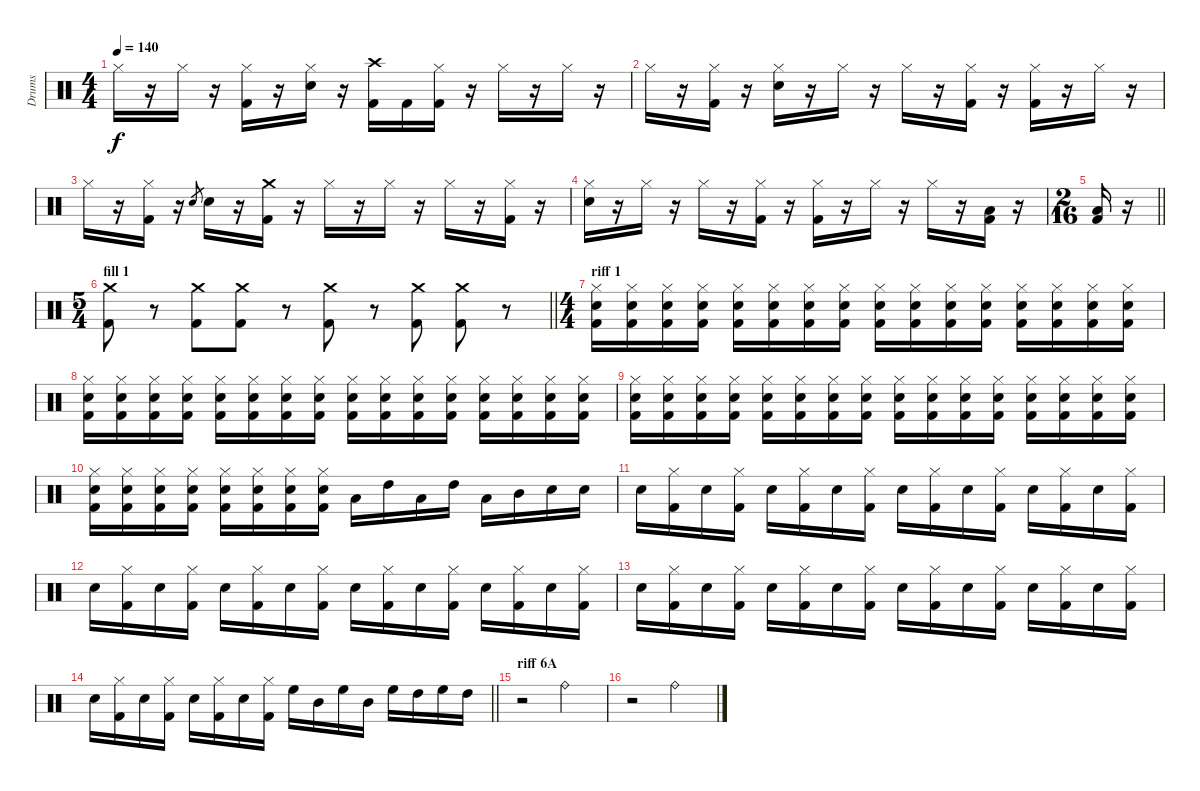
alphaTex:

\track ("Drums" "Drums") {instrument percussion}
\staff {score}
\articulation defaults
\ts (4 4)
\tempo 140
\clef neutral
\ks c "Hi-Hat (closed)".16{dy f}
r.16 "Hi-Hat (closed)".16 r.16 ("Kick (hit) 2" "Hi-Hat (closed)").16 r.16 ("Snare (hit) 2" "Hi-Hat (closed)").16 r.16 ("Kick (hit) 2" "Crash high (hit)").16 "Kick (hit) 2".16 ("Kick (hit) 2" "Hi-Hat (closed)").16 r.16 "Hi-Hat (closed)".16 r.16 "Hi-Hat (closed)".16 r.16 |
"Hi-Hat (closed)".16 r.16 ("Kick (hit) 2" "Hi-Hat (closed)").16 r.16 ("Snare (hit) 2" "Hi-Hat (closed)").16 r.16 "Hi-Hat (closed)".16 r.16 "Hi-Hat (closed)".16 r.16 ("Kick (hit) 2" "Hi-Hat (closed)").16 r.16 ("Kick (hit) 2" "Hi-Hat (closed)").16 r.16 "Hi-Hat (closed)".16 r.16 |
"Hi-Hat (closed)".16 r.16 ("Kick (hit) 2" "Hi-Hat (closed)").16 r.16 "Snare (hit) 2".8{gr} "Snare (hit) 2".16 r.16 ("Kick (hit) 2" "Crash medium (hit)").16 r.16 "Hi-Hat (closed)".16 r.16 "Hi-Hat (closed)".16 r.16 "Hi-Hat (closed)".16 r.16 ("Kick (hit) 2" "Hi-Hat (closed)").16 r.16 |
("Snare (hit) 2" "Hi-Hat (closed)").16 r.16 "Hi-Hat (closed)".16 r.16 "Hi-Hat (closed)".16 r.16 ("Kick (hit) 2" "Hi-Hat (closed)").16 r.16 ("Kick (hit) 2" "Hi-Hat (closed)").16 r.16 "Hi-Hat (closed)".16 r.16 "Hi-Hat (closed)".16 r.16 ("Kick (hit) 2" "Low Floor Tom (hit)").16 r.16 |
\ts (2 16)
\barLineRight lightlight
("Kick (hit) 2" "Low Floor Tom (hit)").16 r.16 |
\ts (5 4)
\section ("" "fill 1")
\barLineRight lightlight
("Kick (hit) 2" "Crash medium (hit)").8 r.8 ("Kick (hit) 2" "Crash medium (hit)").8 ("Kick (hit) 2" "Crash medium (hit)").8 r.8 ("Kick (hit) 2" "Crash medium (hit)").8 r.8 ("Kick (hit) 2" "Crash medium (hit)").8 ("Kick (hit) 2" "Crash medium (hit)").8 r.8 |
\ts (4 4)
\section ("" "riff 1")
("Kick (hit) 2" "Snare (hit) 2" "Hi-Hat (closed)").16 ("Kick (hit) 2" "Snare (hit) 2" "Hi-Hat (closed)").16 ("Kick (hit) 2" "Snare (hit) 2" "Hi-Hat (closed)").16 ("Kick (hit) 2" "Snare (hit) 2" "Hi-Hat (closed)").16 ("Kick (hit) 2" "Snare (hit) 2" "Hi-Hat (closed)").16 ("Kick (hit) 2" "Snare (hit) 2" "Hi-Hat (closed)").16 ("Kick (hit) 2" "Snare (hit) 2" "Hi-Hat (closed)").16 ("Kick (hit) 2" "Snare (hit) 2" "Hi-Hat (closed)").16 ("Kick (hit) 2" "Snare (hit) 2" "Hi-Hat (closed)").16 ("Kick (hit) 2" "Snare (hit) 2" "Hi-Hat (closed)").16 ("Kick (hit) 2" "Snare (hit) 2" "Hi-Hat (closed)").16 ("Kick (hit) 2" "Snare (hit) 2" "Hi-Hat (closed)").16 ("Kick (hit) 2" "Snare (hit) 2" "Hi-Hat (closed)").16 ("Kick (hit) 2" "Snare (hit) 2" "Hi-Hat (closed)").16 ("Kick (hit) 2" "Snare (hit) 2" "Hi-Hat (closed)").16 ("Kick (hit) 2" "Snare (hit) 2" "Hi-Hat (closed)").16 |
("Kick (hit) 2" "Snare (hit) 2" "Hi-Hat (closed)").16 ("Kick (hit) 2" "Snare (hit) 2" "Hi-Hat (closed)").16 ("Kick (hit) 2" "Snare (hit) 2" "Hi-Hat (closed)").16 ("Kick (hit) 2" "Snare (hit) 2" "Hi-Hat (closed)").16 ("Kick (hit) 2" "Snare (hit) 2" "Hi-Hat (closed)").16 ("Kick (hit) 2" "Snare (hit) 2" "Hi-Hat (closed)").16 ("Kick (hit) 2" "Snare (hit) 2" "Hi-Hat (closed)").16 ("Kick (hit) 2" "Snare (hit) 2" "Hi-Hat (closed)").16 ("Kick (hit) 2" "Snare (hit) 2" "Hi-Hat (closed)").16 ("Kick (hit) 2" "Snare (hit) 2" "Hi-Hat (closed)").16 ("Kick (hit) 2" "Snare (hit) 2" "Hi-Hat (closed)").16 ("Kick (hit) 2" "Snare (hit) 2" "Hi-Hat (closed)").16 ("Kick (hit) 2" "Snare (hit) 2" "Hi-Hat (closed)").16 ("Kick (hit) 2" "Snare (hit) 2" "Hi-Hat (closed)").16 ("Kick (hit) 2" "Snare (hit) 2" "Hi-Hat (closed)").16 ("Kick (hit) 2" "Snare (hit) 2" "Hi-Hat (closed)").16 |
("Kick (hit) 2" "Snare (hit) 2" "Hi-Hat (closed)").16 ("Kick (hit) 2" "Snare (hit) 2" "Hi-Hat (closed)").16 ("Kick (hit) 2" "Snare (hit) 2" "Hi-Hat (closed)").16 ("Kick (hit) 2" "Snare (hit) 2" "Hi-Hat (closed)").16 ("Kick (hit) 2" "Snare (hit) 2" "Hi-Hat (closed)").16 ("Kick (hit) 2" "Snare (hit) 2" "Hi-Hat (closed)").16 ("Kick (hit) 2" "Snare (hit) 2" "Hi-Hat (closed)").16 ("Kick (hit) 2" "Snare (hit) 2" "Hi-Hat (closed)").16 ("Kick (hit) 2" "Snare (hit) 2" "Hi-Hat (closed)").16 ("Kick (hit) 2" "Snare (hit) 2" "Hi-Hat (closed)").16 ("Kick (hit) 2" "Snare (hit) 2" "Hi-Hat (closed)").16 ("Kick (hit) 2" "Snare (hit) 2" "Hi-Hat (closed)").16 ("Kick (hit) 2" "Snare (hit) 2" "Hi-Hat (closed)").16 ("Kick (hit) 2" "Snare (hit) 2" "Hi-Hat (closed)").16 ("Kick (hit) 2" "Snare (hit) 2" "Hi-Hat (closed)").16 ("Kick (hit) 2" "Snare (hit) 2" "Hi-Hat (closed)").16 |
("Kick (hit) 2" "Snare (hit) 2" "Hi-Hat (closed)").16 ("Kick (hit) 2" "Snare (hit) 2" "Hi-Hat (closed)").16 ("Kick (hit) 2" "Snare (hit) 2" "Hi-Hat (closed)").16 ("Kick (hit) 2" "Snare (hit) 2" "Hi-Hat (closed)").16 ("Kick (hit) 2" "Snare (hit) 2" "Hi-Hat (closed)").16 ("Kick (hit) 2" "Snare (hit) 2" "Hi-Hat (closed)").16 ("Kick (hit) 2" "Snare (hit) 2" "Hi-Hat (closed)").16 ("Kick (hit) 2" "Snare (hit) 2" "Hi-Hat (closed)").16 "Low Floor Tom (hit)".16 "High Tom (hit)".16 "Low Floor Tom (hit)".16 "High Tom (hit)".16 "Low Floor Tom (hit)".16 "Mid Tom (hit)".16 "Snare (hit) 2".16 "Snare (hit) 2".16 |
"Snare (hit) 2".16 ("Kick (hit) 2" "Hi-Hat (closed)").16 "Snare (hit) 2".16 ("Kick (hit) 2" "Hi-Hat (closed)").16 "Snare (hit) 2".16 ("Kick (hit) 2" "Hi-Hat (closed)").16 "Snare (hit) 2".16 ("Kick (hit) 2" "Hi-Hat (closed)").16 "Snare (hit) 2".16 ("Kick (hit) 2" "Hi-Hat (closed)").16 "Snare (hit) 2".16 ("Kick (hit) 2" "Hi-Hat (closed)").16 "Snare (hit) 2".16 ("Kick (hit) 2" "Hi-Hat (closed)").16 "Snare (hit) 2".16 ("Kick (hit) 2" "Hi-Hat (closed)").16 |
"Snare (hit) 2".16 ("Kick (hit) 2" "Hi-Hat (closed)").16 "Snare (hit) 2".16 ("Kick (hit) 2" "Hi-Hat (closed)").16 "Snare (hit) 2".16 ("Kick (hit) 2" "Hi-Hat (closed)").16 "Snare (hit) 2".16 ("Kick (hit) 2" "Hi-Hat (closed)").16 "Snare (hit) 2".16 ("Kick (hit) 2" "Hi-Hat (closed)").16 "Snare (hit) 2".16 ("Kick (hit) 2" "Hi-Hat (closed)").16 "Snare (hit) 2".16 ("Kick (hit) 2" "Hi-Hat (closed)").16 "Snare (hit) 2".16 ("Kick (hit) 2" "Hi-Hat (closed)").16 |
"Snare (hit) 2".16 ("Kick (hit) 2" "Hi-Hat (closed)").16 "Snare (hit) 2".16 ("Kick (hit) 2" "Hi-Hat (closed)").16 "Snare (hit) 2".16 ("Kick (hit) 2" "Hi-Hat (closed)").16 "Snare (hit) 2".16 ("Kick (hit) 2" "Hi-Hat (closed)").16 "Snare (hit) 2".16 ("Kick (hit) 2" "Hi-Hat (closed)").16 "Snare (hit) 2".16 ("Kick (hit) 2" "Hi-Hat (closed)").16 "Snare (hit) 2".16 ("Kick (hit) 2" "Hi-Hat (closed)").16 "Snare (hit) 2".16 ("Kick (hit) 2" "Hi-Hat (closed)").16 |
\barLineRight lightlight "Snare (hit) 2".16
("Kick (hit) 2" "Hi-Hat (closed)").16 "Snare (hit) 2".16 ("Kick (hit) 2" "Hi-Hat (closed)").16 "Snare (hit) 2".16 ("Kick (hit) 2" "Hi-Hat (closed)").16 "Snare (hit) 2".16 ("Kick (hit) 2" "Hi-Hat (closed)").16 "High Floor Tom (hit)".16 "Mid Tom (hit)".16 "High Floor Tom (hit)".16 "Mid Tom (hit)".16 "High Floor Tom (hit)".16 "High Tom (hit)".16 "High Floor Tom (hit)".16 "High Tom (hit)".16 |
\section ("" "riff 6A")
r.2 "Ride (bell)".2 |
r.2 "Ride (bell)".2
